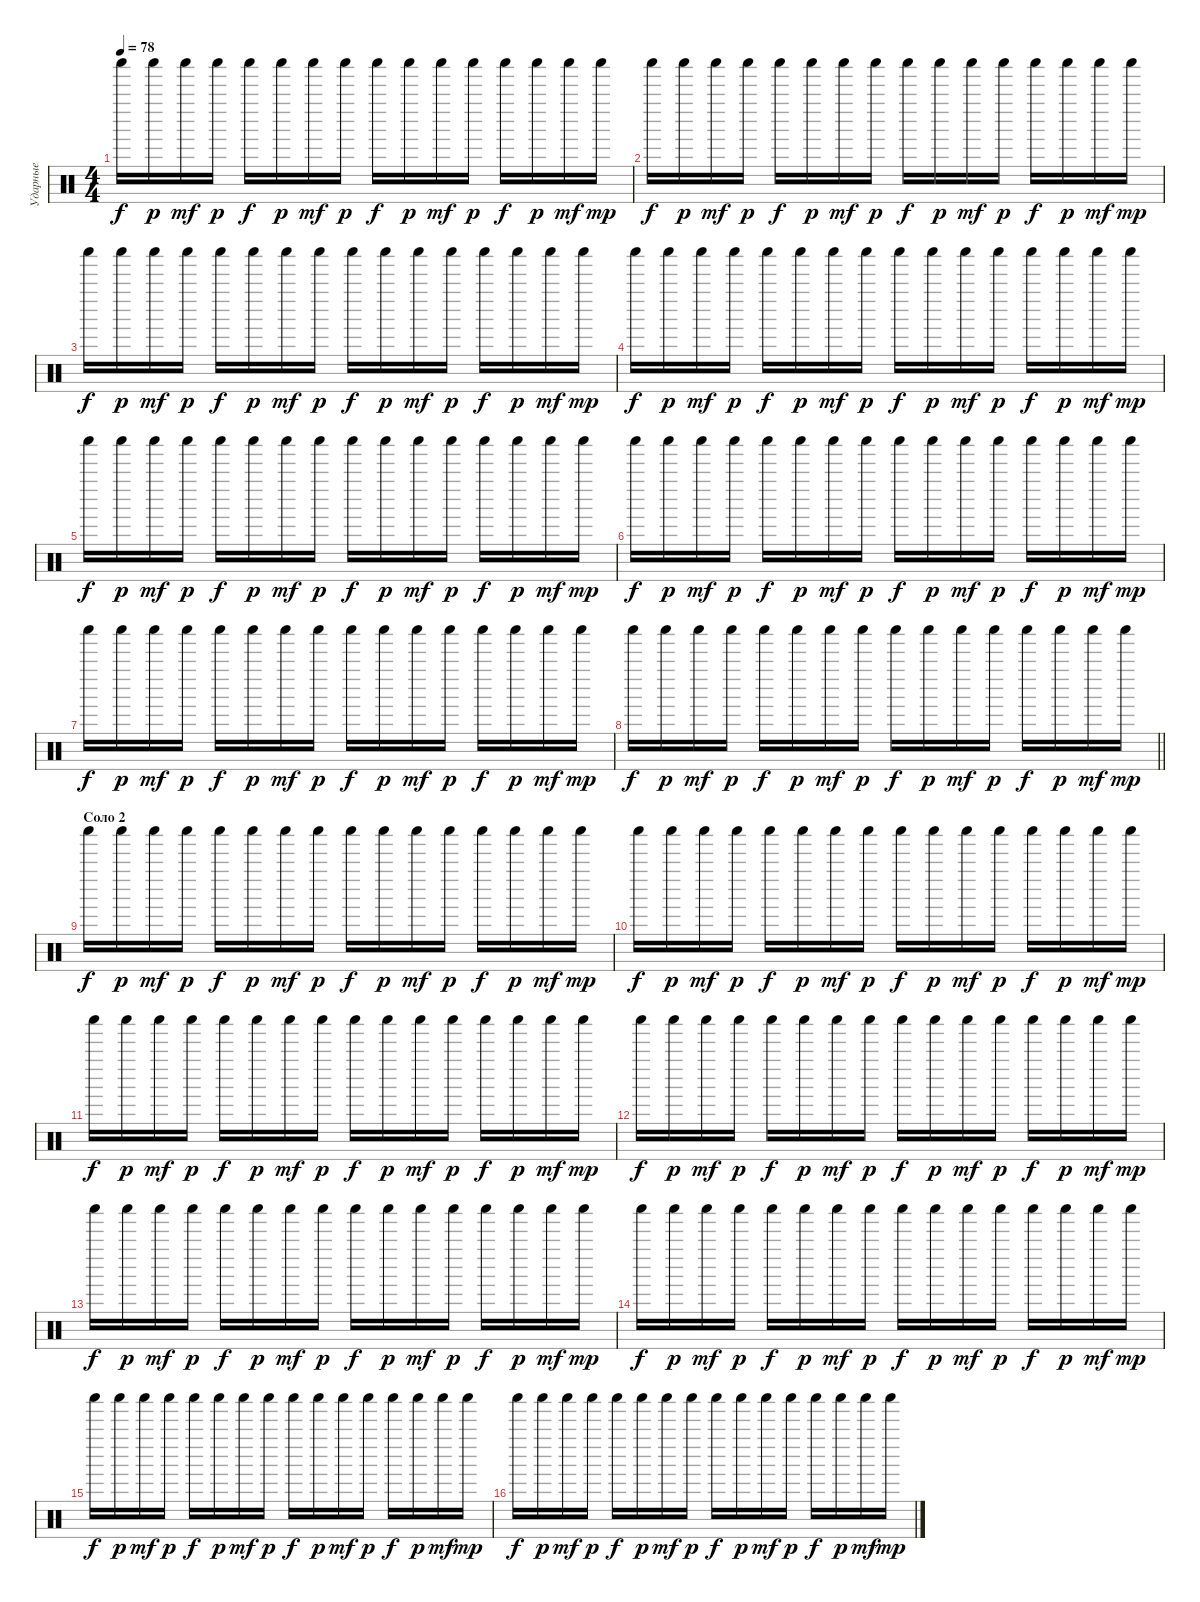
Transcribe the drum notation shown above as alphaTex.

\track ("Ударные" "Ударные") {instrument percussion}
\staff {score}
\articulation defaults
\ts (4 4)
\tempo 78
\clef neutral
\ks c "Shaker (hit)".16{dy f} "Shaker (hit)".16{dy p} "Shaker (hit)".16{dy mf} "Shaker (hit)".16{dy p} "Shaker (hit)".16{dy f} "Shaker (hit)".16{dy p} "Shaker (hit)".16{dy mf} "Shaker (hit)".16{dy p} "Shaker (hit)".16{dy f} "Shaker (hit)".16{dy p} "Shaker (hit)".16{dy mf} "Shaker (hit)".16{dy p} "Shaker (hit)".16{dy f} "Shaker (hit)".16{dy p} "Shaker (hit)".16{dy mf} "Shaker (hit)".16{dy mp}
|
"Shaker (hit)".16{dy f} "Shaker (hit)".16{dy p} "Shaker (hit)".16{dy mf} "Shaker (hit)".16{dy p} "Shaker (hit)".16{dy f} "Shaker (hit)".16{dy p} "Shaker (hit)".16{dy mf} "Shaker (hit)".16{dy p} "Shaker (hit)".16{dy f} "Shaker (hit)".16{dy p} "Shaker (hit)".16{dy mf} "Shaker (hit)".16{dy p} "Shaker (hit)".16{dy f} "Shaker (hit)".16{dy p} "Shaker (hit)".16{dy mf} "Shaker (hit)".16{dy mp} |
"Shaker (hit)".16{dy f} "Shaker (hit)".16{dy p} "Shaker (hit)".16{dy mf} "Shaker (hit)".16{dy p} "Shaker (hit)".16{dy f} "Shaker (hit)".16{dy p} "Shaker (hit)".16{dy mf} "Shaker (hit)".16{dy p} "Shaker (hit)".16{dy f} "Shaker (hit)".16{dy p} "Shaker (hit)".16{dy mf} "Shaker (hit)".16{dy p} "Shaker (hit)".16{dy f} "Shaker (hit)".16{dy p} "Shaker (hit)".16{dy mf} "Shaker (hit)".16{dy mp} |
"Shaker (hit)".16{dy f} "Shaker (hit)".16{dy p} "Shaker (hit)".16{dy mf} "Shaker (hit)".16{dy p} "Shaker (hit)".16{dy f} "Shaker (hit)".16{dy p} "Shaker (hit)".16{dy mf} "Shaker (hit)".16{dy p} "Shaker (hit)".16{dy f} "Shaker (hit)".16{dy p} "Shaker (hit)".16{dy mf} "Shaker (hit)".16{dy p} "Shaker (hit)".16{dy f} "Shaker (hit)".16{dy p} "Shaker (hit)".16{dy mf} "Shaker (hit)".16{dy mp} |
"Shaker (hit)".16{dy f} "Shaker (hit)".16{dy p} "Shaker (hit)".16{dy mf} "Shaker (hit)".16{dy p} "Shaker (hit)".16{dy f} "Shaker (hit)".16{dy p} "Shaker (hit)".16{dy mf} "Shaker (hit)".16{dy p} "Shaker (hit)".16{dy f} "Shaker (hit)".16{dy p} "Shaker (hit)".16{dy mf} "Shaker (hit)".16{dy p} "Shaker (hit)".16{dy f} "Shaker (hit)".16{dy p} "Shaker (hit)".16{dy mf} "Shaker (hit)".16{dy mp} |
"Shaker (hit)".16{dy f} "Shaker (hit)".16{dy p} "Shaker (hit)".16{dy mf} "Shaker (hit)".16{dy p} "Shaker (hit)".16{dy f} "Shaker (hit)".16{dy p} "Shaker (hit)".16{dy mf} "Shaker (hit)".16{dy p} "Shaker (hit)".16{dy f} "Shaker (hit)".16{dy p} "Shaker (hit)".16{dy mf} "Shaker (hit)".16{dy p} "Shaker (hit)".16{dy f} "Shaker (hit)".16{dy p} "Shaker (hit)".16{dy mf} "Shaker (hit)".16{dy mp} |
"Shaker (hit)".16{dy f} "Shaker (hit)".16{dy p} "Shaker (hit)".16{dy mf} "Shaker (hit)".16{dy p} "Shaker (hit)".16{dy f} "Shaker (hit)".16{dy p} "Shaker (hit)".16{dy mf} "Shaker (hit)".16{dy p} "Shaker (hit)".16{dy f} "Shaker (hit)".16{dy p} "Shaker (hit)".16{dy mf} "Shaker (hit)".16{dy p} "Shaker (hit)".16{dy f} "Shaker (hit)".16{dy p} "Shaker (hit)".16{dy mf} "Shaker (hit)".16{dy mp} |
\barLineRight lightlight "Shaker (hit)".16{dy f} "Shaker (hit)".16{dy p} "Shaker (hit)".16{dy mf} "Shaker (hit)".16{dy p} "Shaker (hit)".16{dy f} "Shaker (hit)".16{dy p} "Shaker (hit)".16{dy mf} "Shaker (hit)".16{dy p} "Shaker (hit)".16{dy f} "Shaker (hit)".16{dy p} "Shaker (hit)".16{dy mf} "Shaker (hit)".16{dy p} "Shaker (hit)".16{dy f} "Shaker (hit)".16{dy p} "Shaker (hit)".16{dy mf} "Shaker (hit)".16{dy mp}
|
\section ("" "Соло 2")
"Shaker (hit)".16{dy f} "Shaker (hit)".16{dy p} "Shaker (hit)".16{dy mf} "Shaker (hit)".16{dy p} "Shaker (hit)".16{dy f} "Shaker (hit)".16{dy p} "Shaker (hit)".16{dy mf} "Shaker (hit)".16{dy p} "Shaker (hit)".16{dy f} "Shaker (hit)".16{dy p} "Shaker (hit)".16{dy mf} "Shaker (hit)".16{dy p} "Shaker (hit)".16{dy f} "Shaker (hit)".16{dy p} "Shaker (hit)".16{dy mf} "Shaker (hit)".16{dy mp} |
"Shaker (hit)".16{dy f} "Shaker (hit)".16{dy p} "Shaker (hit)".16{dy mf} "Shaker (hit)".16{dy p} "Shaker (hit)".16{dy f} "Shaker (hit)".16{dy p} "Shaker (hit)".16{dy mf} "Shaker (hit)".16{dy p} "Shaker (hit)".16{dy f} "Shaker (hit)".16{dy p} "Shaker (hit)".16{dy mf} "Shaker (hit)".16{dy p} "Shaker (hit)".16{dy f} "Shaker (hit)".16{dy p} "Shaker (hit)".16{dy mf} "Shaker (hit)".16{dy mp} |
"Shaker (hit)".16{dy f} "Shaker (hit)".16{dy p} "Shaker (hit)".16{dy mf} "Shaker (hit)".16{dy p} "Shaker (hit)".16{dy f} "Shaker (hit)".16{dy p} "Shaker (hit)".16{dy mf} "Shaker (hit)".16{dy p} "Shaker (hit)".16{dy f} "Shaker (hit)".16{dy p} "Shaker (hit)".16{dy mf} "Shaker (hit)".16{dy p} "Shaker (hit)".16{dy f} "Shaker (hit)".16{dy p} "Shaker (hit)".16{dy mf} "Shaker (hit)".16{dy mp} |
"Shaker (hit)".16{dy f} "Shaker (hit)".16{dy p} "Shaker (hit)".16{dy mf} "Shaker (hit)".16{dy p} "Shaker (hit)".16{dy f} "Shaker (hit)".16{dy p} "Shaker (hit)".16{dy mf} "Shaker (hit)".16{dy p} "Shaker (hit)".16{dy f} "Shaker (hit)".16{dy p} "Shaker (hit)".16{dy mf} "Shaker (hit)".16{dy p} "Shaker (hit)".16{dy f} "Shaker (hit)".16{dy p} "Shaker (hit)".16{dy mf} "Shaker (hit)".16{dy mp} |
"Shaker (hit)".16{dy f} "Shaker (hit)".16{dy p} "Shaker (hit)".16{dy mf} "Shaker (hit)".16{dy p} "Shaker (hit)".16{dy f} "Shaker (hit)".16{dy p} "Shaker (hit)".16{dy mf} "Shaker (hit)".16{dy p} "Shaker (hit)".16{dy f} "Shaker (hit)".16{dy p} "Shaker (hit)".16{dy mf} "Shaker (hit)".16{dy p} "Shaker (hit)".16{dy f} "Shaker (hit)".16{dy p} "Shaker (hit)".16{dy mf} "Shaker (hit)".16{dy mp} |
"Shaker (hit)".16{dy f} "Shaker (hit)".16{dy p} "Shaker (hit)".16{dy mf} "Shaker (hit)".16{dy p} "Shaker (hit)".16{dy f} "Shaker (hit)".16{dy p} "Shaker (hit)".16{dy mf} "Shaker (hit)".16{dy p} "Shaker (hit)".16{dy f} "Shaker (hit)".16{dy p} "Shaker (hit)".16{dy mf} "Shaker (hit)".16{dy p} "Shaker (hit)".16{dy f} "Shaker (hit)".16{dy p} "Shaker (hit)".16{dy mf} "Shaker (hit)".16{dy mp} |
"Shaker (hit)".16{dy f} "Shaker (hit)".16{dy p} "Shaker (hit)".16{dy mf} "Shaker (hit)".16{dy p} "Shaker (hit)".16{dy f} "Shaker (hit)".16{dy p} "Shaker (hit)".16{dy mf} "Shaker (hit)".16{dy p} "Shaker (hit)".16{dy f} "Shaker (hit)".16{dy p} "Shaker (hit)".16{dy mf} "Shaker (hit)".16{dy p} "Shaker (hit)".16{dy f} "Shaker (hit)".16{dy p} "Shaker (hit)".16{dy mf} "Shaker (hit)".16{dy mp} |
"Shaker (hit)".16{dy f} "Shaker (hit)".16{dy p} "Shaker (hit)".16{dy mf} "Shaker (hit)".16{dy p} "Shaker (hit)".16{dy f} "Shaker (hit)".16{dy p} "Shaker (hit)".16{dy mf} "Shaker (hit)".16{dy p} "Shaker (hit)".16{dy f} "Shaker (hit)".16{dy p} "Shaker (hit)".16{dy mf} "Shaker (hit)".16{dy p} "Shaker (hit)".16{dy f} "Shaker (hit)".16{dy p} "Shaker (hit)".16{dy mf} "Shaker (hit)".16{dy mp}
